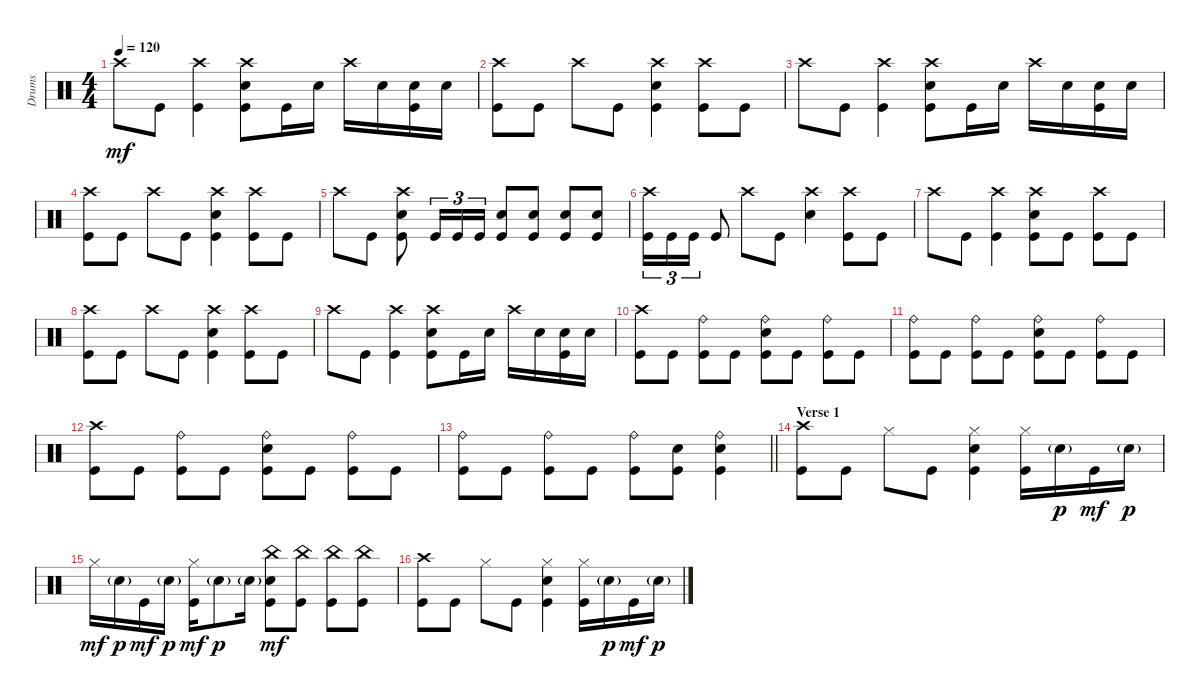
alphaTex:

\track ("Drums" "Drums") {instrument percussion}
\staff {score}
\articulation defaults
\ts (4 4)
\tempo 120
\clef neutral
\ks c "Crash high (hit)".8{dy mf} "Kick (hit)".8
("Crash high (hit)" "Kick (hit)").4 ("Snare (hit) 2" "Crash high (hit)" "Kick (hit)").8 "Kick (hit)".16 "Snare (hit) 2".16 "Crash high (hit)".16 "Snare (hit) 2".16 ("Snare (hit) 2" "Kick (hit)").16 "Snare (hit) 2".16 |
("Kick (hit)" "Crash high (hit)").8 "Kick (hit)".8 "Crash high (hit)".8 "Kick (hit)".8 ("Kick (hit)" "Snare (hit) 2" "Crash high (hit)").4 ("Kick (hit)" "Crash high (hit)").8 "Kick (hit)".8 |
"Crash high (hit)".8 "Kick (hit)".8 ("Kick (hit)" "Crash high (hit)").4 ("Kick (hit)" "Snare (hit) 2" "Crash high (hit)").8 "Kick (hit)".16 "Snare (hit) 2".16 "Crash high (hit)".16 "Snare (hit) 2".16 ("Snare (hit) 2" "Kick (hit)").16 "Snare (hit) 2".16 |
("Kick (hit)" "Crash high (hit)").8 "Kick (hit)".8 "Crash high (hit)".8 "Kick (hit)".8 ("Kick (hit)" "Snare (hit) 2" "Crash high (hit)").4 ("Kick (hit)" "Crash high (hit)").8 "Kick (hit)".8 |
"Crash high (hit)".8 "Kick (hit)".8 ("Kick (hit)" "Snare (hit) 2" "Crash high (hit)").8 "Kick (hit)".16{tu (3 2)} "Kick (hit)".16{tu (3 2)} "Kick (hit)".16{tu (3 2)} ("Snare (hit) 2" "Kick (hit)").8 ("Snare (hit) 2" "Kick (hit)").8 ("Snare (hit) 2" "Kick (hit)").8 ("Snare (hit) 2" "Kick (hit)").8 |
("Kick (hit)" "Crash high (hit)").16{tu (3 2)} "Kick (hit)".16{tu (3 2)} "Kick (hit)".16{tu (3 2)} "Kick (hit)".8 "Crash high (hit)".8 "Kick (hit)".8 ("Snare (hit) 2" "Crash high (hit)").4 ("Kick (hit)" "Crash high (hit)").8 "Kick (hit)".8 |
"Crash high (hit)".8 "Kick (hit)".8 ("Crash high (hit)" "Kick (hit)").4 ("Snare (hit) 2" "Crash high (hit)" "Kick (hit)").8 "Kick (hit)".8 ("Kick (hit)" "Crash high (hit)").8 "Kick (hit)".8 |
("Kick (hit)" "Crash high (hit)").8 "Kick (hit)".8 "Crash high (hit)".8 "Kick (hit)".8 ("Kick (hit)" "Snare (hit) 2" "Crash high (hit)").4 ("Kick (hit)" "Crash high (hit)").8 "Kick (hit)".8 |
"Crash high (hit)".8 "Kick (hit)".8 ("Kick (hit)" "Crash high (hit)").4 ("Kick (hit)" "Snare (hit) 2" "Crash high (hit)").8 "Kick (hit)".16 "Snare (hit) 2".16 "Crash high (hit)".16 "Snare (hit) 2".16 ("Snare (hit) 2" "Kick (hit)").16 "Snare (hit) 2".16 |
("Crash high (hit)" "Kick (hit)").8 "Kick (hit)".8 ("Ride (bell)" "Kick (hit)").8 "Kick (hit)".8 ("Snare (hit) 2" "Ride (bell)" "Kick (hit)").8 "Kick (hit)".8 ("Ride (bell)" "Kick (hit)").8 "Kick (hit)".8 |
("Kick (hit)" "Ride (bell)").8 "Kick (hit)".8 ("Kick (hit)" "Ride (bell)").8 "Kick (hit)".8 ("Kick (hit)" "Snare (hit) 2" "Ride (bell)").8 "Kick (hit)".8 ("Kick (hit)" "Ride (bell)").8 "Kick (hit)".8 |
("Kick (hit)" "Crash high (hit)").8 "Kick (hit)".8 ("Kick (hit)" "Ride (bell)").8 "Kick (hit)".8 ("Kick (hit)" "Snare (hit) 2" "Ride (bell)").8 "Kick (hit)".8 ("Kick (hit)" "Ride (bell)").8 "Kick (hit)".8 |
\barLineRight lightlight
("Ride (bell)" "Kick (hit)").8 "Kick (hit)".8 ("Ride (bell)" "Kick (hit)").8 "Kick (hit)".8 ("Ride (bell)" "Kick (hit)").8 ("Snare (hit) 2" "Kick (hit)").8 ("Snare (hit) 2" "Ride (bell)" "Kick (hit)").4 |
\section ("" "Verse 1")
("Crash high (hit)" "Kick (hit)").8{volume 11} "Kick (hit)".8 "Hi-Hat (closed)".8 "Kick (hit)".8 ("Snare (hit) 2" "Hi-Hat (closed)" "Kick (hit)").4 ("Hi-Hat (closed)" "Kick (hit)").16 "Snare (hit) 2"{g}.16{dy p} "Kick (hit)".16{dy mf} "Snare (hit) 2"{g}.16{dy p} |
"Hi-Hat (closed)".16{dy mf} "Snare (hit) 2"{g}.16{dy p} "Kick (hit)".16{dy mf} "Snare (hit) 2"{g}.16{dy p} ("Hi-Hat (closed)" "Kick (hit)").16{dy mf} "Snare (hit) 2"{g}.8{dy p} "Snare (hit) 2"{g}.16 ("Kick (hit)" "Snare (hit) 2" "China (hit)").8{dy mf} ("Kick (hit)" "China (hit)").8 ("Kick (hit)" "China (hit)").8 ("Kick (hit)" "China (hit)").8 |
("Kick (hit)" "Crash high (hit)").8 "Kick (hit)".8 "Hi-Hat (closed)".8 "Kick (hit)".8 ("Kick (hit)" "Snare (hit) 2" "Hi-Hat (closed)").4 ("Kick (hit)" "Hi-Hat (closed)").16 "Snare (hit) 2"{g}.16{dy p} "Kick (hit)".16{dy mf} "Snare (hit) 2"{g}.16{dy p}
